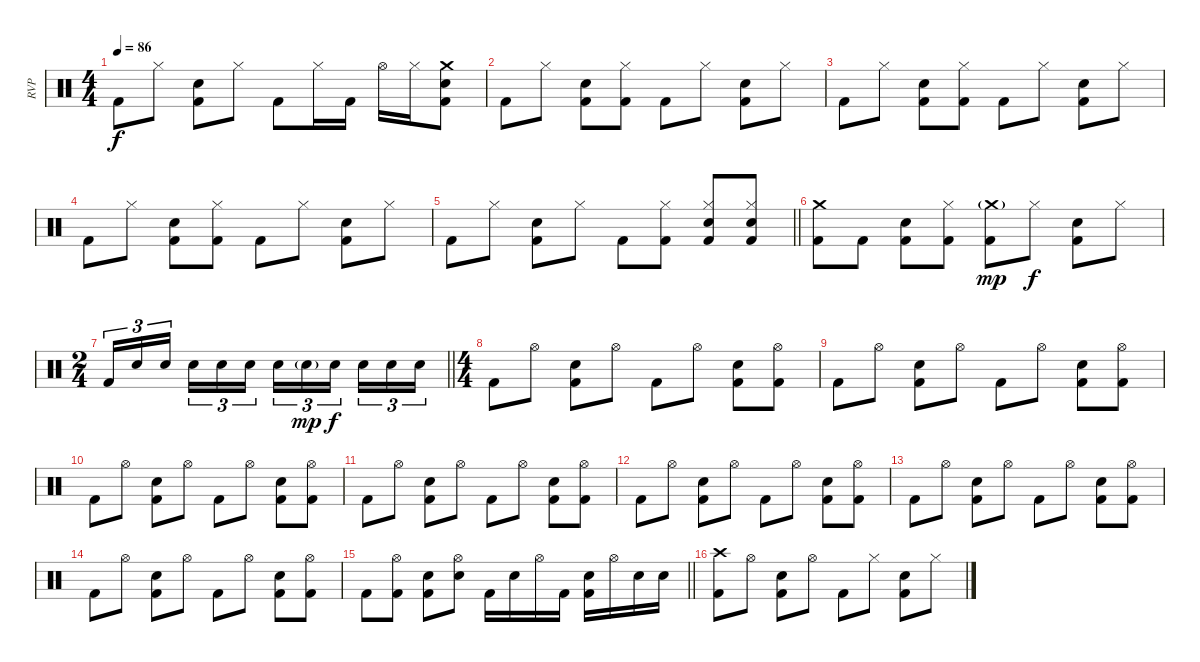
\track ("RVP" "RVP") {instrument percussion}
\staff {score}
\articulation defaults
\ts (4 4)
\tempo 86
\clef neutral
\ks c "Kick (hit) 2".8{dy f} "Hi-Hat (closed)".8
("Electric Snare (hit)" "Kick (hit) 2").8 "Hi-Hat (closed)".8 "Kick (hit) 2".8 "Hi-Hat (closed)".16 "Kick (hit) 2".16 "Hi-Hat (open)".16 "Hi-Hat (closed)".16 ("Crash medium (hit)" "Electric Snare (hit)" "Kick (hit) 2").8 |
"Kick (hit) 2".8 "Hi-Hat (closed)".8 ("Electric Snare (hit)" "Kick (hit) 2").8 ("Hi-Hat (closed)" "Kick (hit) 2").8 "Kick (hit) 2".8 "Hi-Hat (closed)".8 ("Electric Snare (hit)" "Kick (hit) 2").8 "Hi-Hat (closed)".8 |
"Kick (hit) 2".8 "Hi-Hat (closed)".8 ("Electric Snare (hit)" "Kick (hit) 2").8 ("Hi-Hat (closed)" "Kick (hit) 2").8 "Kick (hit) 2".8 "Hi-Hat (closed)".8 ("Electric Snare (hit)" "Kick (hit) 2").8 "Hi-Hat (closed)".8 |
"Kick (hit) 2".8 "Hi-Hat (closed)".8 ("Electric Snare (hit)" "Kick (hit) 2").8 ("Hi-Hat (closed)" "Kick (hit) 2").8 "Kick (hit) 2".8 "Hi-Hat (closed)".8 ("Electric Snare (hit)" "Kick (hit) 2").8 "Hi-Hat (closed)".8 |
\barLineRight lightlight "Kick (hit) 2".8 "Hi-Hat (closed)".8
("Electric Snare (hit)" "Kick (hit) 2").8 "Hi-Hat (closed)".8 "Kick (hit) 2".8 ("Hi-Hat (closed)" "Kick (hit) 2").8 ("Hi-Hat (closed)" "Electric Snare (hit)" "Kick (hit) 2").8 ("Hi-Hat (closed)" "Electric Snare (hit)" "Kick (hit) 2").8 |
("Crash medium (hit)" "Kick (hit) 2").8 "Kick (hit) 2".8 ("Electric Snare (hit)" "Kick (hit) 2").8 ("Hi-Hat (closed)" "Kick (hit) 2").8 ("Crash medium (hit)"{g} "Kick (hit) 2").8{dy mp} "Hi-Hat (closed)".8{dy f} ("Electric Snare (hit)" "Kick (hit) 2").8 "Hi-Hat (closed)".8 |
\ts (2 4)
\barLineRight lightlight "Kick (hit) 2".16{tu (3 2)} "Electric Snare (hit)".16{tu (3 2)} "Electric Snare (hit)".16{tu (3 2) beam splitsecondary} "Electric Snare (hit)".16{tu (3 2)} "Electric Snare (hit)".16{tu (3 2)} "Electric Snare (hit)".16{tu (3 2)} "Electric Snare (hit)".16{tu (3 2)} "Electric Snare (hit)"{g}.16{tu (3 2) dy mp} "Electric Snare (hit)".16{tu (3 2) dy f beam splitsecondary} "Electric Snare (hit)".16{tu (3 2)} "Electric Snare (hit)".16{tu (3 2)} "Electric Snare (hit)".16{tu (3 2)}
|
\ts (4 4)
"Kick (hit) 2".8 "Hi-Hat (open)".8 ("Electric Snare (hit)" "Kick (hit) 2").8 "Hi-Hat (open)".8 "Kick (hit) 2".8 "Hi-Hat (open)".8 ("Electric Snare (hit)" "Kick (hit) 2").8 ("Hi-Hat (open)" "Kick (hit) 2").8 |
"Kick (hit) 2".8 "Hi-Hat (open)".8 ("Electric Snare (hit)" "Kick (hit) 2").8 "Hi-Hat (open)".8 "Kick (hit) 2".8 "Hi-Hat (open)".8 ("Electric Snare (hit)" "Kick (hit) 2").8 ("Hi-Hat (open)" "Kick (hit) 2").8 |
"Kick (hit) 2".8 "Hi-Hat (open)".8 ("Electric Snare (hit)" "Kick (hit) 2").8 "Hi-Hat (open)".8 "Kick (hit) 2".8 "Hi-Hat (open)".8 ("Electric Snare (hit)" "Kick (hit) 2").8 ("Hi-Hat (open)" "Kick (hit) 2").8 |
"Kick (hit) 2".8 "Hi-Hat (open)".8 ("Electric Snare (hit)" "Kick (hit) 2").8 "Hi-Hat (open)".8 "Kick (hit) 2".8 "Hi-Hat (open)".8 ("Electric Snare (hit)" "Kick (hit) 2").8 ("Hi-Hat (open)" "Kick (hit) 2").8 |
"Kick (hit) 2".8 "Hi-Hat (open)".8 ("Electric Snare (hit)" "Kick (hit) 2").8 "Hi-Hat (open)".8 "Kick (hit) 2".8 "Hi-Hat (open)".8 ("Electric Snare (hit)" "Kick (hit) 2").8 ("Hi-Hat (open)" "Kick (hit) 2").8 |
"Kick (hit) 2".8 "Hi-Hat (open)".8 ("Electric Snare (hit)" "Kick (hit) 2").8 "Hi-Hat (open)".8 "Kick (hit) 2".8 "Hi-Hat (open)".8 ("Electric Snare (hit)" "Kick (hit) 2").8 ("Hi-Hat (open)" "Kick (hit) 2").8 |
"Kick (hit) 2".8 "Hi-Hat (open)".8 ("Electric Snare (hit)" "Kick (hit) 2").8 "Hi-Hat (open)".8 "Kick (hit) 2".8 "Hi-Hat (open)".8 ("Electric Snare (hit)" "Kick (hit) 2").8 ("Hi-Hat (open)" "Kick (hit) 2").8 |
\barLineRight lightlight "Kick (hit) 2".8
("Hi-Hat (open)" "Kick (hit) 2").8 ("Electric Snare (hit)" "Kick (hit) 2").8 ("Hi-Hat (open)" "Electric Snare (hit)").8 "Kick (hit) 2".16 "Electric Snare (hit)".16 "Hi-Hat (open)".16 "Kick (hit) 2".16 ("Electric Snare (hit)" "Kick (hit) 2").16 "Hi-Hat (open)".16 "Electric Snare (hit)".16 "Electric Snare (hit)".16 |
("Crash high (hit)" "Kick (hit) 2").8 "Hi-Hat (open)".8 ("Electric Snare (hit)" "Kick (hit) 2").8 "Hi-Hat (open)".8 "Kick (hit) 2".8 "Hi-Hat (closed)".8 ("Electric Snare (hit)" "Kick (hit) 2").8 "Hi-Hat (closed)".8
